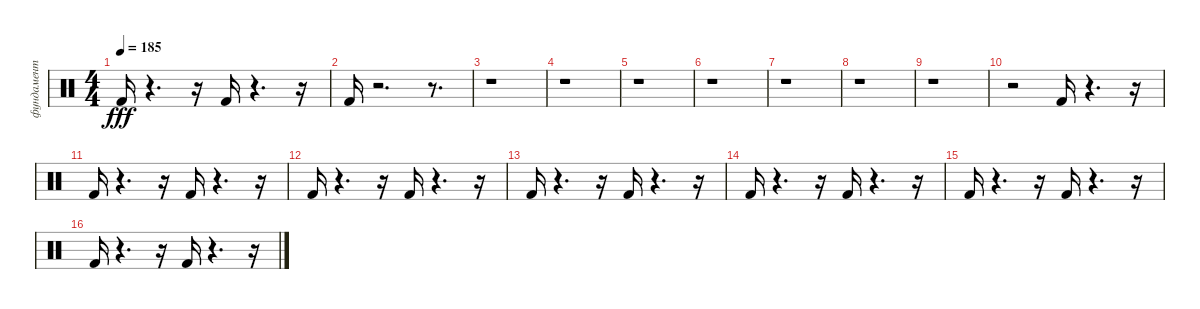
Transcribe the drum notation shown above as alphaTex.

\track ("фундамент" "фундамент") {instrument percussion}
\staff {score}
\articulation defaults
\ts (4 4)
\tempo 185
\clef neutral
\ks c "Kick (hit) 2".16{dy fff}
r.4{d} r.16 "Kick (hit) 2".16 r.4{d} r.16 |
"Kick (hit) 2".16 r.2{d} r.8{d} |
r.1 |
r.1 |
r.1 |
r.1 |
r.1 |
r.1 |
r.1 |
r.2 "Kick (hit) 2".16 r.4{d} r.16 |
"Kick (hit) 2".16 r.4{d} r.16 "Kick (hit) 2".16 r.4{d} r.16 |
"Kick (hit) 2".16 r.4{d} r.16 "Kick (hit) 2".16 r.4{d} r.16 |
"Kick (hit) 2".16 r.4{d} r.16 "Kick (hit) 2".16 r.4{d} r.16 |
"Kick (hit) 2".16 r.4{d} r.16 "Kick (hit) 2".16 r.4{d} r.16 |
"Kick (hit) 2".16 r.4{d} r.16 "Kick (hit) 2".16 r.4{d} r.16 |
"Kick (hit) 2".16 r.4{d} r.16 "Kick (hit) 2".16 r.4{d} r.16
